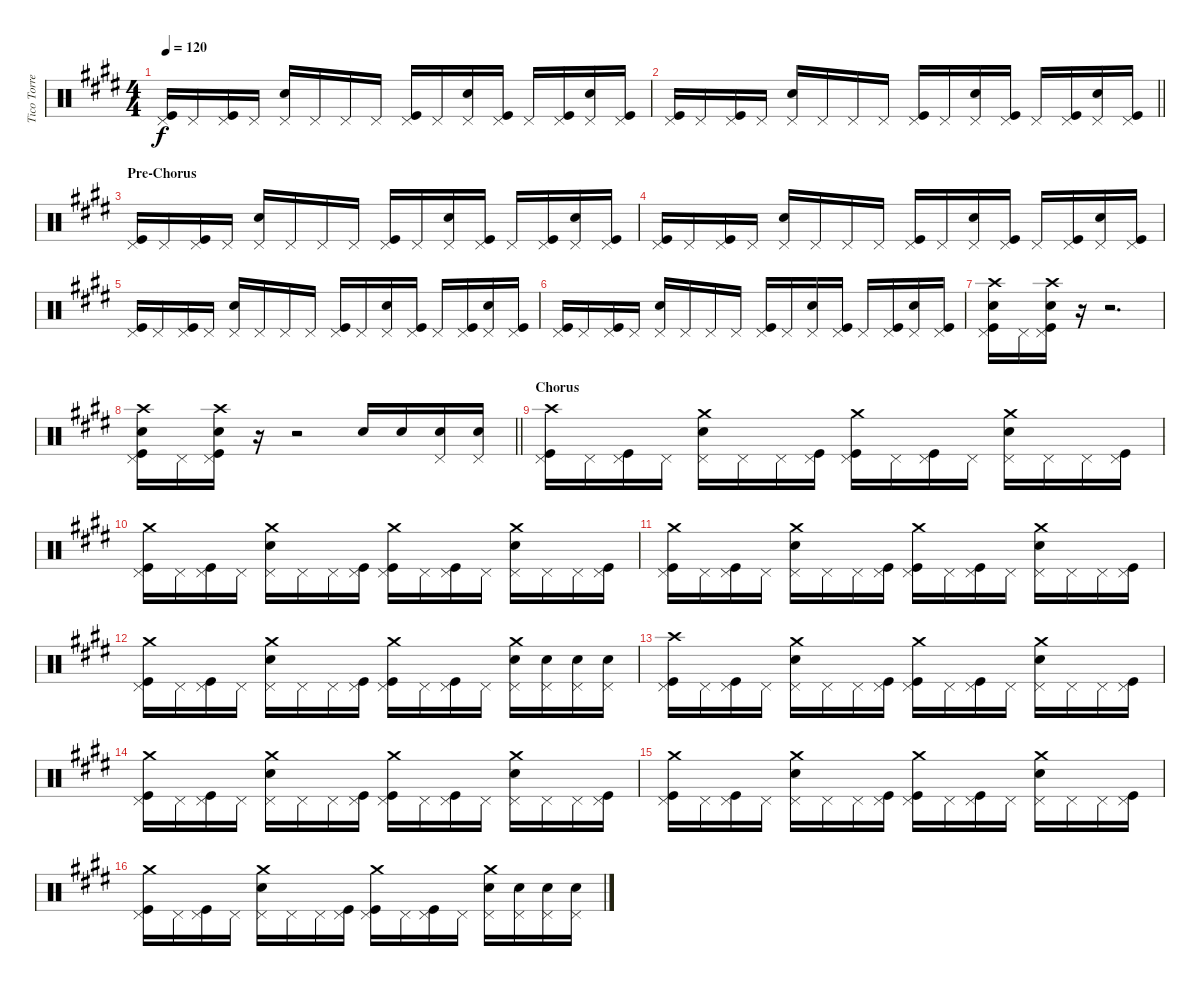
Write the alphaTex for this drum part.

\track ("Tico Torres (Drums)" "Tico Torre") {instrument percussion}
\staff {score}
\articulation defaults
\ts (4 4)
\tempo 120
\clef neutral
\ks c#minor
("Pedal Hi-Hat (hit)" "Kick (hit)").16{dy f} "Pedal Hi-Hat (hit)".16 ("Pedal Hi-Hat (hit)" "Kick (hit)").16 "Pedal Hi-Hat (hit)".16 ("Electric Snare (hit)" "Pedal Hi-Hat (hit)").16 "Pedal Hi-Hat (hit)".16 "Pedal Hi-Hat (hit)".16 "Pedal Hi-Hat (hit)".16 ("Pedal Hi-Hat (hit)" "Kick (hit)").16 "Pedal Hi-Hat (hit)".16 ("Electric Snare (hit)" "Pedal Hi-Hat (hit)").16 ("Pedal Hi-Hat (hit)" "Kick (hit)").16 "Pedal Hi-Hat (hit)".16 ("Pedal Hi-Hat (hit)" "Kick (hit)").16 ("Electric Snare (hit)" "Pedal Hi-Hat (hit)").16 ("Pedal Hi-Hat (hit)" "Kick (hit)").16 |
\barLineRight lightlight
("Pedal Hi-Hat (hit)" "Kick (hit)").16 "Pedal Hi-Hat (hit)".16 ("Pedal Hi-Hat (hit)" "Kick (hit)").16 "Pedal Hi-Hat (hit)".16 ("Electric Snare (hit)" "Pedal Hi-Hat (hit)").16 "Pedal Hi-Hat (hit)".16 "Pedal Hi-Hat (hit)".16 "Pedal Hi-Hat (hit)".16 ("Pedal Hi-Hat (hit)" "Kick (hit)").16 "Pedal Hi-Hat (hit)".16 ("Electric Snare (hit)" "Pedal Hi-Hat (hit)").16 ("Pedal Hi-Hat (hit)" "Kick (hit)").16 "Pedal Hi-Hat (hit)".16 ("Pedal Hi-Hat (hit)" "Kick (hit)").16 ("Electric Snare (hit)" "Pedal Hi-Hat (hit)").16 ("Pedal Hi-Hat (hit)" "Kick (hit)").16 |
\section ("" "Pre-Chorus")
("Pedal Hi-Hat (hit)" "Kick (hit)").16 "Pedal Hi-Hat (hit)".16 ("Pedal Hi-Hat (hit)" "Kick (hit)").16 "Pedal Hi-Hat (hit)".16 ("Electric Snare (hit)" "Pedal Hi-Hat (hit)").16 "Pedal Hi-Hat (hit)".16 "Pedal Hi-Hat (hit)".16 "Pedal Hi-Hat (hit)".16 ("Pedal Hi-Hat (hit)" "Kick (hit)").16 "Pedal Hi-Hat (hit)".16 ("Electric Snare (hit)" "Pedal Hi-Hat (hit)").16 ("Pedal Hi-Hat (hit)" "Kick (hit)").16 "Pedal Hi-Hat (hit)".16 ("Pedal Hi-Hat (hit)" "Kick (hit)").16 ("Electric Snare (hit)" "Pedal Hi-Hat (hit)").16 ("Pedal Hi-Hat (hit)" "Kick (hit)").16 |
("Pedal Hi-Hat (hit)" "Kick (hit)").16 "Pedal Hi-Hat (hit)".16 ("Pedal Hi-Hat (hit)" "Kick (hit)").16 "Pedal Hi-Hat (hit)".16 ("Electric Snare (hit)" "Pedal Hi-Hat (hit)").16 "Pedal Hi-Hat (hit)".16 "Pedal Hi-Hat (hit)".16 "Pedal Hi-Hat (hit)".16 ("Pedal Hi-Hat (hit)" "Kick (hit)").16 "Pedal Hi-Hat (hit)".16 ("Electric Snare (hit)" "Pedal Hi-Hat (hit)").16 ("Pedal Hi-Hat (hit)" "Kick (hit)").16 "Pedal Hi-Hat (hit)".16 ("Pedal Hi-Hat (hit)" "Kick (hit)").16 ("Electric Snare (hit)" "Pedal Hi-Hat (hit)").16 ("Pedal Hi-Hat (hit)" "Kick (hit)").16 |
("Pedal Hi-Hat (hit)" "Kick (hit)").16 "Pedal Hi-Hat (hit)".16 ("Pedal Hi-Hat (hit)" "Kick (hit)").16 "Pedal Hi-Hat (hit)".16 ("Electric Snare (hit)" "Pedal Hi-Hat (hit)").16 "Pedal Hi-Hat (hit)".16 "Pedal Hi-Hat (hit)".16 "Pedal Hi-Hat (hit)".16 ("Pedal Hi-Hat (hit)" "Kick (hit)").16 "Pedal Hi-Hat (hit)".16 ("Electric Snare (hit)" "Pedal Hi-Hat (hit)").16 ("Pedal Hi-Hat (hit)" "Kick (hit)").16 "Pedal Hi-Hat (hit)".16 ("Pedal Hi-Hat (hit)" "Kick (hit)").16 ("Electric Snare (hit)" "Pedal Hi-Hat (hit)").16 ("Pedal Hi-Hat (hit)" "Kick (hit)").16 |
("Pedal Hi-Hat (hit)" "Kick (hit)").16 "Pedal Hi-Hat (hit)".16 ("Pedal Hi-Hat (hit)" "Kick (hit)").16 "Pedal Hi-Hat (hit)".16 ("Electric Snare (hit)" "Pedal Hi-Hat (hit)").16 "Pedal Hi-Hat (hit)".16 "Pedal Hi-Hat (hit)".16 "Pedal Hi-Hat (hit)".16 ("Pedal Hi-Hat (hit)" "Kick (hit)").16 "Pedal Hi-Hat (hit)".16 ("Electric Snare (hit)" "Pedal Hi-Hat (hit)").16 ("Pedal Hi-Hat (hit)" "Kick (hit)").16 "Pedal Hi-Hat (hit)".16 ("Pedal Hi-Hat (hit)" "Kick (hit)").16 ("Electric Snare (hit)" "Pedal Hi-Hat (hit)").16 ("Pedal Hi-Hat (hit)" "Kick (hit)").16 |
("Crash high (hit)" "Electric Snare (hit)" "Pedal Hi-Hat (hit)" "Kick (hit)").16 "Pedal Hi-Hat (hit)".16 ("Crash high (hit)" "Electric Snare (hit)" "Pedal Hi-Hat (hit)" "Kick (hit)").16 r.16 r.2{d} |
\barLineRight lightlight
("Crash high (hit)" "Electric Snare (hit)" "Pedal Hi-Hat (hit)" "Kick (hit)").16 "Pedal Hi-Hat (hit)".16 ("Crash high (hit)" "Electric Snare (hit)" "Pedal Hi-Hat (hit)" "Kick (hit)").16 r.16 r.2 "Electric Snare (hit)".16 "Electric Snare (hit)".16 ("Electric Snare (hit)" "Pedal Hi-Hat (hit)").16 ("Electric Snare (hit)" "Pedal Hi-Hat (hit)").16 |
\section ("" "Chorus")
("Crash high (hit)" "Pedal Hi-Hat (hit)" "Kick (hit)").16 "Pedal Hi-Hat (hit)".16 ("Pedal Hi-Hat (hit)" "Kick (hit)").16 "Pedal Hi-Hat (hit)".16 ("Crash medium (hit)" "Electric Snare (hit)" "Pedal Hi-Hat (hit)").16 "Pedal Hi-Hat (hit)".16 "Pedal Hi-Hat (hit)".16 ("Pedal Hi-Hat (hit)" "Kick (hit)").16 ("Crash medium (hit)" "Pedal Hi-Hat (hit)" "Kick (hit)").16 "Pedal Hi-Hat (hit)".16 ("Pedal Hi-Hat (hit)" "Kick (hit)").16 "Pedal Hi-Hat (hit)".16 ("Crash medium (hit)" "Electric Snare (hit)" "Pedal Hi-Hat (hit)").16 "Pedal Hi-Hat (hit)".16 "Pedal Hi-Hat (hit)".16 ("Pedal Hi-Hat (hit)" "Kick (hit)").16 |
("Crash medium (hit)" "Pedal Hi-Hat (hit)" "Kick (hit)").16 "Pedal Hi-Hat (hit)".16 ("Pedal Hi-Hat (hit)" "Kick (hit)").16 "Pedal Hi-Hat (hit)".16 ("Crash medium (hit)" "Electric Snare (hit)" "Pedal Hi-Hat (hit)").16 "Pedal Hi-Hat (hit)".16 "Pedal Hi-Hat (hit)".16 ("Pedal Hi-Hat (hit)" "Kick (hit)").16 ("Crash medium (hit)" "Pedal Hi-Hat (hit)" "Kick (hit)").16 "Pedal Hi-Hat (hit)".16 ("Pedal Hi-Hat (hit)" "Kick (hit)").16 "Pedal Hi-Hat (hit)".16 ("Crash medium (hit)" "Electric Snare (hit)" "Pedal Hi-Hat (hit)").16 "Pedal Hi-Hat (hit)".16 "Pedal Hi-Hat (hit)".16 ("Pedal Hi-Hat (hit)" "Kick (hit)").16 |
("Crash medium (hit)" "Pedal Hi-Hat (hit)" "Kick (hit)").16 "Pedal Hi-Hat (hit)".16 ("Pedal Hi-Hat (hit)" "Kick (hit)").16 "Pedal Hi-Hat (hit)".16 ("Crash medium (hit)" "Electric Snare (hit)" "Pedal Hi-Hat (hit)").16 "Pedal Hi-Hat (hit)".16 "Pedal Hi-Hat (hit)".16 ("Pedal Hi-Hat (hit)" "Kick (hit)").16 ("Crash medium (hit)" "Pedal Hi-Hat (hit)" "Kick (hit)").16 "Pedal Hi-Hat (hit)".16 ("Pedal Hi-Hat (hit)" "Kick (hit)").16 "Pedal Hi-Hat (hit)".16 ("Crash medium (hit)" "Electric Snare (hit)" "Pedal Hi-Hat (hit)").16 "Pedal Hi-Hat (hit)".16 "Pedal Hi-Hat (hit)".16 ("Pedal Hi-Hat (hit)" "Kick (hit)").16 |
("Crash medium (hit)" "Pedal Hi-Hat (hit)" "Kick (hit)").16 "Pedal Hi-Hat (hit)".16 ("Pedal Hi-Hat (hit)" "Kick (hit)").16 "Pedal Hi-Hat (hit)".16 ("Crash medium (hit)" "Electric Snare (hit)" "Pedal Hi-Hat (hit)").16 "Pedal Hi-Hat (hit)".16 "Pedal Hi-Hat (hit)".16 ("Pedal Hi-Hat (hit)" "Kick (hit)").16 ("Crash medium (hit)" "Pedal Hi-Hat (hit)" "Kick (hit)").16 "Pedal Hi-Hat (hit)".16 ("Pedal Hi-Hat (hit)" "Kick (hit)").16 "Pedal Hi-Hat (hit)".16 ("Crash medium (hit)" "Electric Snare (hit)" "Pedal Hi-Hat (hit)").16 ("Electric Snare (hit)" "Pedal Hi-Hat (hit)").16 ("Electric Snare (hit)" "Pedal Hi-Hat (hit)").16 ("Electric Snare (hit)" "Pedal Hi-Hat (hit)").16 |
("Crash high (hit)" "Pedal Hi-Hat (hit)" "Kick (hit)").16 "Pedal Hi-Hat (hit)".16 ("Pedal Hi-Hat (hit)" "Kick (hit)").16 "Pedal Hi-Hat (hit)".16 ("Crash medium (hit)" "Electric Snare (hit)" "Pedal Hi-Hat (hit)").16 "Pedal Hi-Hat (hit)".16 "Pedal Hi-Hat (hit)".16 ("Pedal Hi-Hat (hit)" "Kick (hit)").16 ("Crash medium (hit)" "Pedal Hi-Hat (hit)" "Kick (hit)").16 "Pedal Hi-Hat (hit)".16 ("Pedal Hi-Hat (hit)" "Kick (hit)").16 "Pedal Hi-Hat (hit)".16 ("Crash medium (hit)" "Electric Snare (hit)" "Pedal Hi-Hat (hit)").16 "Pedal Hi-Hat (hit)".16 "Pedal Hi-Hat (hit)".16 ("Pedal Hi-Hat (hit)" "Kick (hit)").16 |
("Crash medium (hit)" "Pedal Hi-Hat (hit)" "Kick (hit)").16 "Pedal Hi-Hat (hit)".16 ("Pedal Hi-Hat (hit)" "Kick (hit)").16 "Pedal Hi-Hat (hit)".16 ("Crash medium (hit)" "Electric Snare (hit)" "Pedal Hi-Hat (hit)").16 "Pedal Hi-Hat (hit)".16 "Pedal Hi-Hat (hit)".16 ("Pedal Hi-Hat (hit)" "Kick (hit)").16 ("Crash medium (hit)" "Pedal Hi-Hat (hit)" "Kick (hit)").16 "Pedal Hi-Hat (hit)".16 ("Pedal Hi-Hat (hit)" "Kick (hit)").16 "Pedal Hi-Hat (hit)".16 ("Crash medium (hit)" "Electric Snare (hit)" "Pedal Hi-Hat (hit)").16 "Pedal Hi-Hat (hit)".16 "Pedal Hi-Hat (hit)".16 ("Pedal Hi-Hat (hit)" "Kick (hit)").16 |
("Crash medium (hit)" "Pedal Hi-Hat (hit)" "Kick (hit)").16 "Pedal Hi-Hat (hit)".16 ("Pedal Hi-Hat (hit)" "Kick (hit)").16 "Pedal Hi-Hat (hit)".16 ("Crash medium (hit)" "Electric Snare (hit)" "Pedal Hi-Hat (hit)").16 "Pedal Hi-Hat (hit)".16 "Pedal Hi-Hat (hit)".16 ("Pedal Hi-Hat (hit)" "Kick (hit)").16 ("Crash medium (hit)" "Pedal Hi-Hat (hit)" "Kick (hit)").16 "Pedal Hi-Hat (hit)".16 ("Pedal Hi-Hat (hit)" "Kick (hit)").16 "Pedal Hi-Hat (hit)".16 ("Crash medium (hit)" "Electric Snare (hit)" "Pedal Hi-Hat (hit)").16 "Pedal Hi-Hat (hit)".16 "Pedal Hi-Hat (hit)".16 ("Pedal Hi-Hat (hit)" "Kick (hit)").16 |
("Crash medium (hit)" "Pedal Hi-Hat (hit)" "Kick (hit)").16 "Pedal Hi-Hat (hit)".16 ("Pedal Hi-Hat (hit)" "Kick (hit)").16 "Pedal Hi-Hat (hit)".16 ("Crash medium (hit)" "Electric Snare (hit)" "Pedal Hi-Hat (hit)").16 "Pedal Hi-Hat (hit)".16 "Pedal Hi-Hat (hit)".16 ("Pedal Hi-Hat (hit)" "Kick (hit)").16 ("Crash medium (hit)" "Pedal Hi-Hat (hit)" "Kick (hit)").16 "Pedal Hi-Hat (hit)".16 ("Pedal Hi-Hat (hit)" "Kick (hit)").16 "Pedal Hi-Hat (hit)".16 ("Crash medium (hit)" "Electric Snare (hit)" "Pedal Hi-Hat (hit)").16 ("Electric Snare (hit)" "Pedal Hi-Hat (hit)").16 ("Electric Snare (hit)" "Pedal Hi-Hat (hit)").16 ("Electric Snare (hit)" "Pedal Hi-Hat (hit)").16
